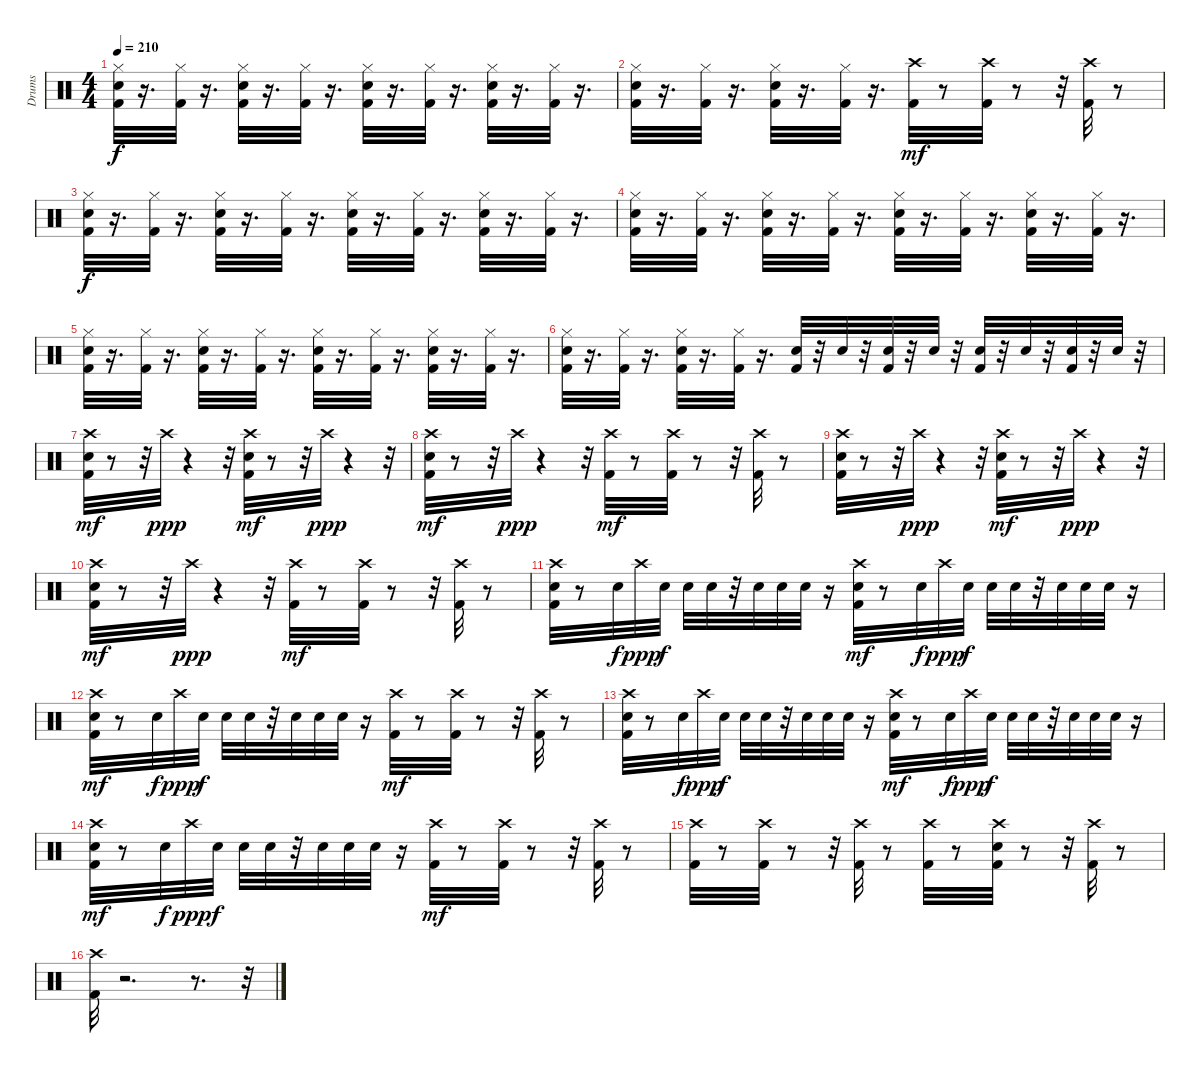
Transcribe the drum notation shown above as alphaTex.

\track ("Drums" "Drums") {instrument percussion}
\staff {score}
\articulation defaults
\ts (4 4)
\tempo 210
\clef neutral
\ks c
("Kick (hit) 2" "Snare (hit) 2" "Hi-Hat (closed)").32{dy f} r.16{d} ("Kick (hit) 2" "Hi-Hat (closed)").32 r.16{d} ("Kick (hit) 2" "Snare (hit) 2" "Hi-Hat (closed)").32 r.16{d} ("Kick (hit) 2" "Hi-Hat (closed)").32 r.16{d} ("Kick (hit) 2" "Snare (hit) 2" "Hi-Hat (closed)").32 r.16{d} ("Kick (hit) 2" "Hi-Hat (closed)").32 r.16{d} ("Kick (hit) 2" "Snare (hit) 2" "Hi-Hat (closed)").32 r.16{d} ("Kick (hit) 2" "Hi-Hat (closed)").32 r.16{d} |
("Kick (hit) 2" "Snare (hit) 2" "Hi-Hat (closed)").32 r.16{d} ("Kick (hit) 2" "Hi-Hat (closed)").32 r.16{d} ("Kick (hit) 2" "Snare (hit) 2" "Hi-Hat (closed)").32 r.16{d} ("Kick (hit) 2" "Hi-Hat (closed)").32 r.16{d} ("Kick (hit) 2" "Crash high (hit)").32{dy mf} r.8 ("Kick (hit) 2" "Crash high (hit)").32 r.8 r.32 ("Kick (hit) 2" "Crash high (hit)").32 r.8 |
("Kick (hit) 2" "Snare (hit) 2" "Hi-Hat (closed)").32{dy f} r.16{d} ("Kick (hit) 2" "Hi-Hat (closed)").32 r.16{d} ("Kick (hit) 2" "Snare (hit) 2" "Hi-Hat (closed)").32 r.16{d} ("Kick (hit) 2" "Hi-Hat (closed)").32 r.16{d} ("Kick (hit) 2" "Snare (hit) 2" "Hi-Hat (closed)").32 r.16{d} ("Kick (hit) 2" "Hi-Hat (closed)").32 r.16{d} ("Kick (hit) 2" "Snare (hit) 2" "Hi-Hat (closed)").32 r.16{d} ("Kick (hit) 2" "Hi-Hat (closed)").32 r.16{d} |
("Kick (hit) 2" "Snare (hit) 2" "Hi-Hat (closed)").32 r.16{d} ("Kick (hit) 2" "Hi-Hat (closed)").32 r.16{d} ("Kick (hit) 2" "Snare (hit) 2" "Hi-Hat (closed)").32 r.16{d} ("Kick (hit) 2" "Hi-Hat (closed)").32 r.16{d} ("Kick (hit) 2" "Snare (hit) 2" "Hi-Hat (closed)").32 r.16{d} ("Kick (hit) 2" "Hi-Hat (closed)").32 r.16{d} ("Kick (hit) 2" "Snare (hit) 2" "Hi-Hat (closed)").32 r.16{d} ("Kick (hit) 2" "Hi-Hat (closed)").32 r.16{d} |
("Kick (hit) 2" "Snare (hit) 2" "Hi-Hat (closed)").32 r.16{d} ("Kick (hit) 2" "Hi-Hat (closed)").32 r.16{d} ("Kick (hit) 2" "Snare (hit) 2" "Hi-Hat (closed)").32 r.16{d} ("Kick (hit) 2" "Hi-Hat (closed)").32 r.16{d} ("Kick (hit) 2" "Snare (hit) 2" "Hi-Hat (closed)").32 r.16{d} ("Kick (hit) 2" "Hi-Hat (closed)").32 r.16{d} ("Kick (hit) 2" "Snare (hit) 2" "Hi-Hat (closed)").32 r.16{d} ("Kick (hit) 2" "Hi-Hat (closed)").32 r.16{d} |
("Kick (hit) 2" "Snare (hit) 2" "Hi-Hat (closed)").32 r.16{d} ("Kick (hit) 2" "Hi-Hat (closed)").32 r.16{d} ("Kick (hit) 2" "Snare (hit) 2" "Hi-Hat (closed)").32 r.16{d} ("Kick (hit) 2" "Hi-Hat (closed)").32 r.16{d} ("Kick (hit) 2" "Snare (hit) 2").32 r.32 "Snare (hit) 2".32 r.32 ("Kick (hit) 2" "Snare (hit) 2").32 r.32 "Snare (hit) 2".32 r.32 ("Kick (hit) 2" "Snare (hit) 2").32 r.32 "Snare (hit) 2".32 r.32 ("Kick (hit) 2" "Snare (hit) 2").32 r.32 "Snare (hit) 2".32 r.32 |
("Kick (hit) 2" "Snare (hit) 2" "Crash high (hit)").32{dy mf} r.8 r.32 "Crash high (hit)".32{dy ppp} r.4 r.32 ("Kick (hit) 2" "Snare (hit) 2" "Crash high (hit)").32{dy mf} r.8 r.32 "Crash high (hit)".32{dy ppp} r.4 r.32 |
("Kick (hit) 2" "Snare (hit) 2" "Crash high (hit)").32{dy mf} r.8 r.32 "Crash high (hit)".32{dy ppp} r.4 r.32 ("Kick (hit) 2" "Crash high (hit)").32{dy mf} r.8 ("Kick (hit) 2" "Crash high (hit)").32 r.8 r.32 ("Kick (hit) 2" "Crash high (hit)").32 r.8 |
("Kick (hit) 2" "Snare (hit) 2" "Crash high (hit)").32 r.8 r.32 "Crash high (hit)".32{dy ppp} r.4 r.32 ("Kick (hit) 2" "Snare (hit) 2" "Crash high (hit)").32{dy mf} r.8 r.32 "Crash high (hit)".32{dy ppp} r.4 r.32 |
("Kick (hit) 2" "Snare (hit) 2" "Crash high (hit)").32{dy mf} r.8 r.32 "Crash high (hit)".32{dy ppp} r.4 r.32 ("Kick (hit) 2" "Crash high (hit)").32{dy mf} r.8 ("Kick (hit) 2" "Crash high (hit)").32 r.8 r.32 ("Kick (hit) 2" "Crash high (hit)").32 r.8 |
("Kick (hit) 2" "Snare (hit) 2" "Crash high (hit)").32 r.8 "Snare (hit) 2".32{dy f} "Crash high (hit)".32{dy ppp} "Snare (hit) 2".32{dy f} "Snare (hit) 2".32 "Snare (hit) 2".32 r.32 "Snare (hit) 2".32 "Snare (hit) 2".32 "Snare (hit) 2".32 r.16 ("Kick (hit) 2" "Snare (hit) 2" "Crash high (hit)").32{dy mf} r.8 "Snare (hit) 2".32{dy f} "Crash high (hit)".32{dy ppp} "Snare (hit) 2".32{dy f} "Snare (hit) 2".32 "Snare (hit) 2".32 r.32 "Snare (hit) 2".32 "Snare (hit) 2".32 "Snare (hit) 2".32 r.16 |
("Kick (hit) 2" "Snare (hit) 2" "Crash high (hit)").32{dy mf} r.8 "Snare (hit) 2".32{dy f} "Crash high (hit)".32{dy ppp} "Snare (hit) 2".32{dy f} "Snare (hit) 2".32 "Snare (hit) 2".32 r.32 "Snare (hit) 2".32 "Snare (hit) 2".32 "Snare (hit) 2".32 r.16 ("Kick (hit) 2" "Crash high (hit)").32{dy mf} r.8 ("Kick (hit) 2" "Crash high (hit)").32 r.8 r.32 ("Kick (hit) 2" "Crash high (hit)").32 r.8 |
("Kick (hit) 2" "Snare (hit) 2" "Crash high (hit)").32 r.8 "Snare (hit) 2".32{dy f} "Crash high (hit)".32{dy ppp} "Snare (hit) 2".32{dy f} "Snare (hit) 2".32 "Snare (hit) 2".32 r.32 "Snare (hit) 2".32 "Snare (hit) 2".32 "Snare (hit) 2".32 r.16 ("Kick (hit) 2" "Snare (hit) 2" "Crash high (hit)").32{dy mf} r.8 "Snare (hit) 2".32{dy f} "Crash high (hit)".32{dy ppp} "Snare (hit) 2".32{dy f} "Snare (hit) 2".32 "Snare (hit) 2".32 r.32 "Snare (hit) 2".32 "Snare (hit) 2".32 "Snare (hit) 2".32 r.16 |
("Kick (hit) 2" "Snare (hit) 2" "Crash high (hit)").32{dy mf} r.8 "Snare (hit) 2".32{dy f} "Crash high (hit)".32{dy ppp} "Snare (hit) 2".32{dy f} "Snare (hit) 2".32 "Snare (hit) 2".32 r.32 "Snare (hit) 2".32 "Snare (hit) 2".32 "Snare (hit) 2".32 r.16 ("Kick (hit) 2" "Crash high (hit)").32{dy mf} r.8 ("Kick (hit) 2" "Crash high (hit)").32 r.8 r.32 ("Kick (hit) 2" "Crash high (hit)").32 r.8 |
("Kick (hit) 2" "Crash high (hit)").32 r.8 ("Kick (hit) 2" "Crash high (hit)").32 r.8 r.32 ("Kick (hit) 2" "Crash high (hit)").32 r.8 ("Kick (hit) 2" "Crash high (hit)").32 r.8 ("Kick (hit) 2" "Snare (hit) 2" "Crash high (hit)").32 r.8 r.32 ("Kick (hit) 2" "Crash high (hit)").32 r.8 |
("Kick (hit) 2" "Crash high (hit)").32 r.2{d} r.8{d} r.32
